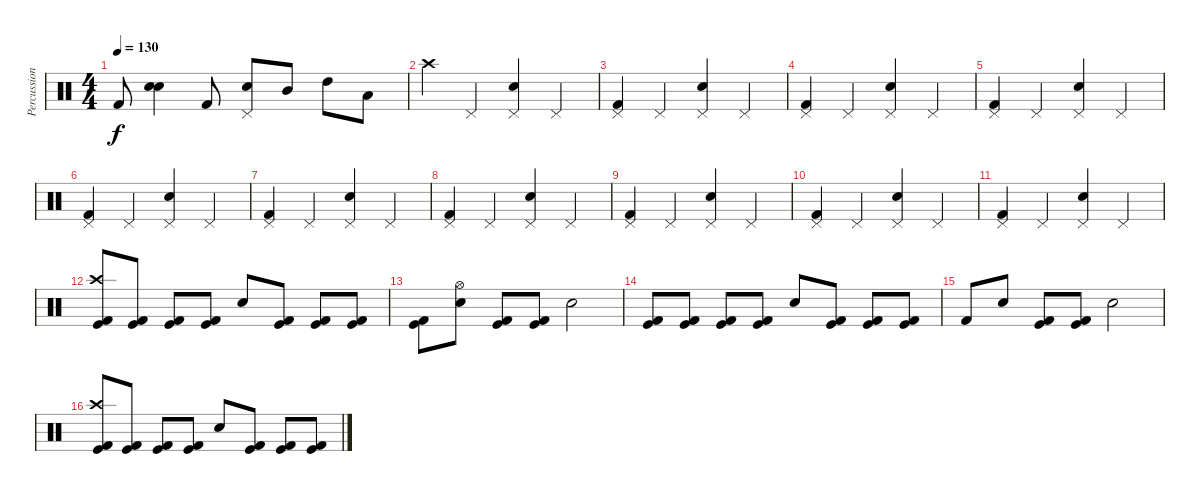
\track ("Percussion" "Percussion") {instrument percussion}
\staff {score}
\articulation defaults
\ts (4 4)
\tempo 130
\clef neutral
\ks c "Kick (hit) 2".8{dy f}
("Electric Snare (hit)" "Snare (hit) 2").4 "Kick (hit) 2".8 ("Pedal Hi-Hat (hit)" "Snare (hit) 2").8 "Mid Tom (hit)".8 "High Tom (hit)".8 "Low Tom (hit)".8 |
"Crash high (hit)".4 "Pedal Hi-Hat (hit)".4 ("Pedal Hi-Hat (hit)" "Snare (hit) 2").4 "Pedal Hi-Hat (hit)".4 |
("Pedal Hi-Hat (hit)" "Kick (hit) 2").4 "Pedal Hi-Hat (hit)".4 ("Pedal Hi-Hat (hit)" "Snare (hit) 2").4 "Pedal Hi-Hat (hit)".4 |
("Pedal Hi-Hat (hit)" "Kick (hit) 2").4 "Pedal Hi-Hat (hit)".4 ("Pedal Hi-Hat (hit)" "Snare (hit) 2").4 "Pedal Hi-Hat (hit)".4 |
("Pedal Hi-Hat (hit)" "Kick (hit) 2").4 "Pedal Hi-Hat (hit)".4 ("Pedal Hi-Hat (hit)" "Snare (hit) 2").4 "Pedal Hi-Hat (hit)".4 |
("Pedal Hi-Hat (hit)" "Kick (hit) 2").4 "Pedal Hi-Hat (hit)".4 ("Pedal Hi-Hat (hit)" "Snare (hit) 2").4 "Pedal Hi-Hat (hit)".4 |
("Pedal Hi-Hat (hit)" "Kick (hit) 2").4 "Pedal Hi-Hat (hit)".4 ("Pedal Hi-Hat (hit)" "Snare (hit) 2").4 "Pedal Hi-Hat (hit)".4 |
("Pedal Hi-Hat (hit)" "Kick (hit) 2").4 "Pedal Hi-Hat (hit)".4 ("Pedal Hi-Hat (hit)" "Snare (hit) 2").4 "Pedal Hi-Hat (hit)".4 |
("Pedal Hi-Hat (hit)" "Kick (hit) 2").4 "Pedal Hi-Hat (hit)".4 ("Pedal Hi-Hat (hit)" "Snare (hit) 2").4 "Pedal Hi-Hat (hit)".4 |
("Pedal Hi-Hat (hit)" "Kick (hit) 2").4 "Pedal Hi-Hat (hit)".4 ("Pedal Hi-Hat (hit)" "Snare (hit) 2").4 "Pedal Hi-Hat (hit)".4 |
("Pedal Hi-Hat (hit)" "Kick (hit) 2").4 "Pedal Hi-Hat (hit)".4 ("Pedal Hi-Hat (hit)" "Snare (hit) 2").4 "Pedal Hi-Hat (hit)".4 |
("Crash high (hit)" "Kick (hit) 2" "Kick (hit)").8 ("Kick (hit) 2" "Kick (hit)").8 ("Kick (hit) 2" "Kick (hit)").8 ("Kick (hit) 2" "Kick (hit)").8 "Snare (hit) 2".8 ("Kick (hit) 2" "Kick (hit)").8 ("Kick (hit) 2" "Kick (hit)").8 ("Kick (hit) 2" "Kick (hit)").8 |
("Kick (hit) 2" "Kick (hit)").8 ("Snare (hit) 2" "Hi-Hat (open)").8 ("Kick (hit) 2" "Kick (hit)").8 ("Kick (hit) 2" "Kick (hit)").8 "Snare (hit) 2".2 |
("Kick (hit) 2" "Kick (hit)").8 ("Kick (hit) 2" "Kick (hit)").8 ("Kick (hit) 2" "Kick (hit)").8 ("Kick (hit) 2" "Kick (hit)").8 "Snare (hit) 2".8 ("Kick (hit) 2" "Kick (hit)").8 ("Kick (hit) 2" "Kick (hit)").8 ("Kick (hit) 2" "Kick (hit)").8 |
"Kick (hit) 2".8 "Snare (hit) 2".8 ("Kick (hit) 2" "Kick (hit)").8 ("Kick (hit) 2" "Kick (hit)").8 "Snare (hit) 2".2 |
("Crash high (hit)" "Kick (hit) 2" "Kick (hit)").8 ("Kick (hit) 2" "Kick (hit)").8 ("Kick (hit) 2" "Kick (hit)").8 ("Kick (hit) 2" "Kick (hit)").8 "Snare (hit) 2".8 ("Kick (hit) 2" "Kick (hit)").8 ("Kick (hit) 2" "Kick (hit)").8 ("Kick (hit) 2" "Kick (hit)").8
